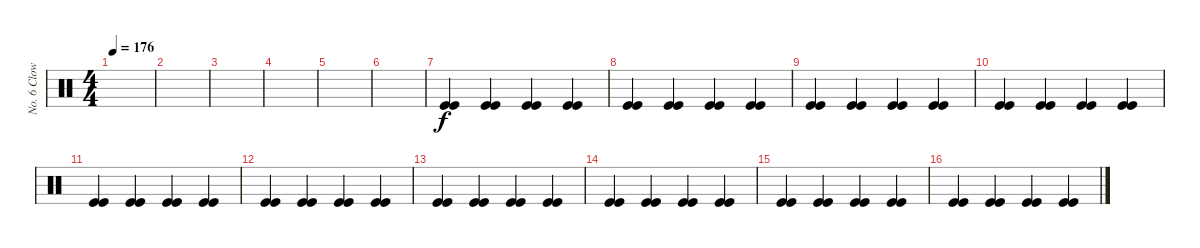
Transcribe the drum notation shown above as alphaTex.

\track ("No. 6 Clown" "No. 6 Clow") {instrument percussion}
\staff {score}
\articulation defaults
\ts (4 4)
\tempo 176
\clef neutral
\ks c
|
|
|
|
|
|
("Kick (hit)" "Kick (hit)").4 ("Kick (hit)" "Kick (hit)").4 ("Kick (hit)" "Kick (hit)").4 ("Kick (hit)" "Kick (hit)").4 |
("Kick (hit)" "Kick (hit)").4 ("Kick (hit)" "Kick (hit)").4 ("Kick (hit)" "Kick (hit)").4 ("Kick (hit)" "Kick (hit)").4 |
("Kick (hit)" "Kick (hit)").4 ("Kick (hit)" "Kick (hit)").4 ("Kick (hit)" "Kick (hit)").4 ("Kick (hit)" "Kick (hit)").4 |
("Kick (hit)" "Kick (hit)").4 ("Kick (hit)" "Kick (hit)").4 ("Kick (hit)" "Kick (hit)").4 ("Kick (hit)" "Kick (hit)").4 |
("Kick (hit)" "Kick (hit)").4 ("Kick (hit)" "Kick (hit)").4 ("Kick (hit)" "Kick (hit)").4 ("Kick (hit)" "Kick (hit)").4 |
("Kick (hit)" "Kick (hit)").4 ("Kick (hit)" "Kick (hit)").4 ("Kick (hit)" "Kick (hit)").4 ("Kick (hit)" "Kick (hit)").4 |
("Kick (hit)" "Kick (hit)").4 ("Kick (hit)" "Kick (hit)").4 ("Kick (hit)" "Kick (hit)").4 ("Kick (hit)" "Kick (hit)").4 |
("Kick (hit)" "Kick (hit)").4 ("Kick (hit)" "Kick (hit)").4 ("Kick (hit)" "Kick (hit)").4 ("Kick (hit)" "Kick (hit)").4 |
("Kick (hit)" "Kick (hit)").4 ("Kick (hit)" "Kick (hit)").4 ("Kick (hit)" "Kick (hit)").4 ("Kick (hit)" "Kick (hit)").4 |
("Kick (hit)" "Kick (hit)").4 ("Kick (hit)" "Kick (hit)").4 ("Kick (hit)" "Kick (hit)").4 ("Kick (hit)" "Kick (hit)").4
